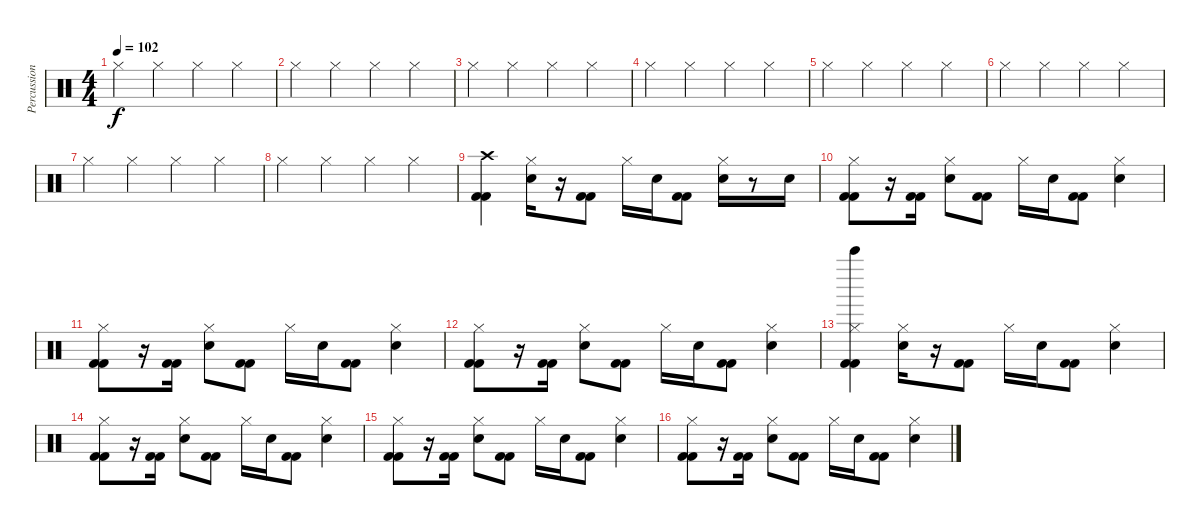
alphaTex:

\track ("Percussions" "Percussion") {instrument percussion}
\staff {score}
\articulation defaults
\ts (4 4)
\tempo 102
\clef neutral
\ks c "Hi-Hat (closed)".4{dy f} "Hi-Hat (closed)".4 "Hi-Hat (closed)".4 "Hi-Hat (closed)".4
|
"Hi-Hat (closed)".4 "Hi-Hat (closed)".4 "Hi-Hat (closed)".4 "Hi-Hat (closed)".4 |
"Hi-Hat (closed)".4 "Hi-Hat (closed)".4 "Hi-Hat (closed)".4 "Hi-Hat (closed)".4 |
"Hi-Hat (closed)".4 "Hi-Hat (closed)".4 "Hi-Hat (closed)".4 "Hi-Hat (closed)".4 |
"Hi-Hat (closed)".4 "Hi-Hat (closed)".4 "Hi-Hat (closed)".4 "Hi-Hat (closed)".4 |
"Hi-Hat (closed)".4 "Hi-Hat (closed)".4 "Hi-Hat (closed)".4 "Hi-Hat (closed)".4 |
"Hi-Hat (closed)".4 "Hi-Hat (closed)".4 "Hi-Hat (closed)".4 "Hi-Hat (closed)".4 |
"Hi-Hat (closed)".4 "Hi-Hat (closed)".4 "Hi-Hat (closed)".4 "Hi-Hat (closed)".4 |
("Crash high (hit)" "Kick (hit) 2" "Kick (hit) 2").4 ("Hi-Hat (closed)" "Electric Snare (hit)").16 r.16 ("Kick (hit) 2" "Kick (hit) 2").8 "Hi-Hat (closed)".16 "Electric Snare (hit)".16 ("Kick (hit) 2" "Kick (hit) 2").8 ("Hi-Hat (closed)" "Electric Snare (hit)").16 r.8 "Electric Snare (hit)".16 |
("Hi-Hat (closed)" "Kick (hit) 2" "Kick (hit) 2").8 r.16 ("Kick (hit) 2" "Kick (hit) 2").16 ("Hi-Hat (closed)" "Electric Snare (hit)").8 ("Kick (hit) 2" "Kick (hit) 2").8 "Hi-Hat (closed)".16 "Electric Snare (hit)".16 ("Kick (hit) 2" "Kick (hit) 2").8 ("Hi-Hat (closed)" "Electric Snare (hit)").4 |
("Hi-Hat (closed)" "Kick (hit) 2" "Kick (hit) 2").8 r.16 ("Kick (hit) 2" "Kick (hit) 2").16 ("Hi-Hat (closed)" "Electric Snare (hit)").8 ("Kick (hit) 2" "Kick (hit) 2").8 "Hi-Hat (closed)".16 "Electric Snare (hit)".16 ("Kick (hit) 2" "Kick (hit) 2").8 ("Hi-Hat (closed)" "Electric Snare (hit)").4 |
("Hi-Hat (closed)" "Kick (hit) 2" "Kick (hit) 2").8 r.16 ("Kick (hit) 2" "Kick (hit) 2").16 ("Hi-Hat (closed)" "Electric Snare (hit)").8 ("Kick (hit) 2" "Kick (hit) 2").8 "Hi-Hat (closed)".16 "Electric Snare (hit)".16 ("Kick (hit) 2" "Kick (hit) 2").8 ("Hi-Hat (closed)" "Electric Snare (hit)").4 |
("Hi-Hat (closed)" "Bell Tree (hit)" "Kick (hit) 2" "Kick (hit) 2").4 ("Hi-Hat (closed)" "Electric Snare (hit)").16 r.16 ("Kick (hit) 2" "Kick (hit) 2").8 "Hi-Hat (closed)".16 "Electric Snare (hit)".16 ("Kick (hit) 2" "Kick (hit) 2").8 ("Hi-Hat (closed)" "Electric Snare (hit)").4 |
("Hi-Hat (closed)" "Kick (hit) 2" "Kick (hit) 2").8 r.16 ("Kick (hit) 2" "Kick (hit) 2").16 ("Hi-Hat (closed)" "Electric Snare (hit)").8 ("Kick (hit) 2" "Kick (hit) 2").8 "Hi-Hat (closed)".16 "Electric Snare (hit)".16 ("Kick (hit) 2" "Kick (hit) 2").8 ("Hi-Hat (closed)" "Electric Snare (hit)").4 |
("Hi-Hat (closed)" "Kick (hit) 2" "Kick (hit) 2").8 r.16 ("Kick (hit) 2" "Kick (hit) 2").16 ("Hi-Hat (closed)" "Electric Snare (hit)").8 ("Kick (hit) 2" "Kick (hit) 2").8 "Hi-Hat (closed)".16 "Electric Snare (hit)".16 ("Kick (hit) 2" "Kick (hit) 2").8 ("Hi-Hat (closed)" "Electric Snare (hit)").4 |
("Hi-Hat (closed)" "Kick (hit) 2" "Kick (hit) 2").8 r.16 ("Kick (hit) 2" "Kick (hit) 2").16 ("Hi-Hat (closed)" "Electric Snare (hit)").8 ("Kick (hit) 2" "Kick (hit) 2").8 "Hi-Hat (closed)".16 "Electric Snare (hit)".16 ("Kick (hit) 2" "Kick (hit) 2").8 ("Hi-Hat (closed)" "Electric Snare (hit)").4
